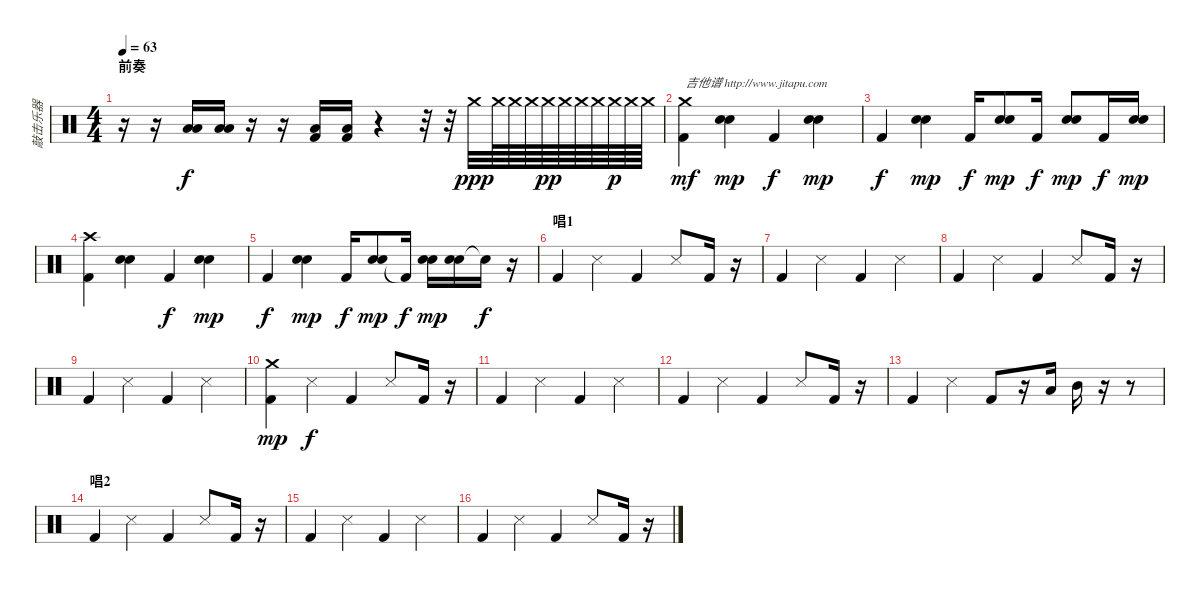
\track ("敲击乐器" "敲击乐器") {instrument percussion}
\staff {score}
\articulation defaults
\ts (4 4)
\section ("" "前奏")
\tempo 63
\clef neutral
\ks c
r.16{dy f} r.16 ("Low Tom (hit)" "Low Tom (hit)").16 ("Low Tom (hit)" "Low Tom (hit)").16 r.16 r.16 ("Low Floor Tom (hit)" "Kick (hit) 2").16 ("Low Floor Tom (hit)" "Kick (hit) 2").16 r.4 r.32 r.32 "Crash medium (hit)".32{dy ppp} "Crash medium (hit)".64 "Crash medium (hit)".64 "Crash medium (hit)".64 "Crash medium (hit)".64{dy pp} "Crash medium (hit)".64 "Crash medium (hit)".64 "Crash medium (hit)".64 "Crash medium (hit)".64{dy p} "Crash medium (hit)".64 "Crash medium (hit)".64 |
("Crash medium (hit)" "Kick (hit) 2").4{txt "吉他谱 http://www.jitapu.com" dy mf} ("Electric Snare (hit)" "Snare (hit) 2").4{dy mp} "Kick (hit) 2".4{dy f} ("Electric Snare (hit)" "Snare (hit) 2").4{dy mp} |
"Kick (hit) 2".4{dy f} ("Electric Snare (hit)" "Snare (hit) 2").4{dy mp} "Kick (hit) 2".16{dy f} ("Electric Snare (hit)" "Snare (hit) 2").8{dy mp} "Kick (hit) 2".16{dy f} ("Electric Snare (hit)" "Snare (hit) 2").8{dy mp} "Kick (hit) 2".16{dy f} ("Electric Snare (hit)" "Snare (hit) 2").16{dy mp} |
("Crash high (hit)" "Kick (hit) 2").4 ("Electric Snare (hit)" "Snare (hit) 2").4 "Kick (hit) 2".4{dy f} ("Electric Snare (hit)" "Snare (hit) 2").4{dy mp} |
"Kick (hit) 2".4{dy f} ("Electric Snare (hit)" "Snare (hit) 2").4{dy mp} "Kick (hit) 2".16{dy f} ("Electric Snare (hit)" "Snare (hit) 2").8{dy mp} "Kick (hit) 2"{t}.16{dy f} ("Electric Snare (hit)" "Snare (hit) 2").16{dy mp} ("Electric Snare (hit)" "Snare (hit) 2").16 "Snare (hit)"{t}.16{dy f} r.16 |
\section ("" "唱1")
"Kick (hit) 2".4 "Snare (side stick) 3".4 "Kick (hit) 2".4 "Snare (side stick) 3".8 "Kick (hit) 2".16 r.16 |
"Kick (hit) 2".4 "Snare (side stick) 3".4 "Kick (hit) 2".4 "Snare (side stick) 3".4 |
"Kick (hit) 2".4 "Snare (side stick) 3".4 "Kick (hit) 2".4 "Snare (side stick) 3".8 "Kick (hit) 2".16 r.16 |
"Kick (hit) 2".4 "Snare (side stick) 3".4 "Kick (hit) 2".4 "Snare (side stick) 3".4 |
("Crash medium (hit)" "Kick (hit) 2").4{dy mp} "Snare (side stick) 3".4{dy f} "Kick (hit) 2".4 "Snare (side stick) 3".8 "Kick (hit) 2".16 r.16 |
"Kick (hit) 2".4 "Snare (side stick) 3".4 "Kick (hit) 2".4 "Snare (side stick) 3".4 |
"Kick (hit) 2".4 "Snare (side stick) 3".4 "Kick (hit) 2".4 "Snare (side stick) 3".8 "Kick (hit) 2".16 r.16 |
"Kick (hit) 2".4 "Snare (side stick) 3".4 "Kick (hit) 2".8 r.16 "Low Tom (hit)".16 "Mid Tom (hit)".16 r.16 r.8 |
\section ("" "唱2")
"Kick (hit) 2".4 "Snare (side stick) 3".4 "Kick (hit) 2".4 "Snare (side stick) 3".8 "Kick (hit) 2".16 r.16 |
"Kick (hit) 2".4 "Snare (side stick) 3".4 "Kick (hit) 2".4 "Snare (side stick) 3".4 |
"Kick (hit) 2".4 "Snare (side stick) 3".4 "Kick (hit) 2".4 "Snare (side stick) 3".8 "Kick (hit) 2".16 r.16
